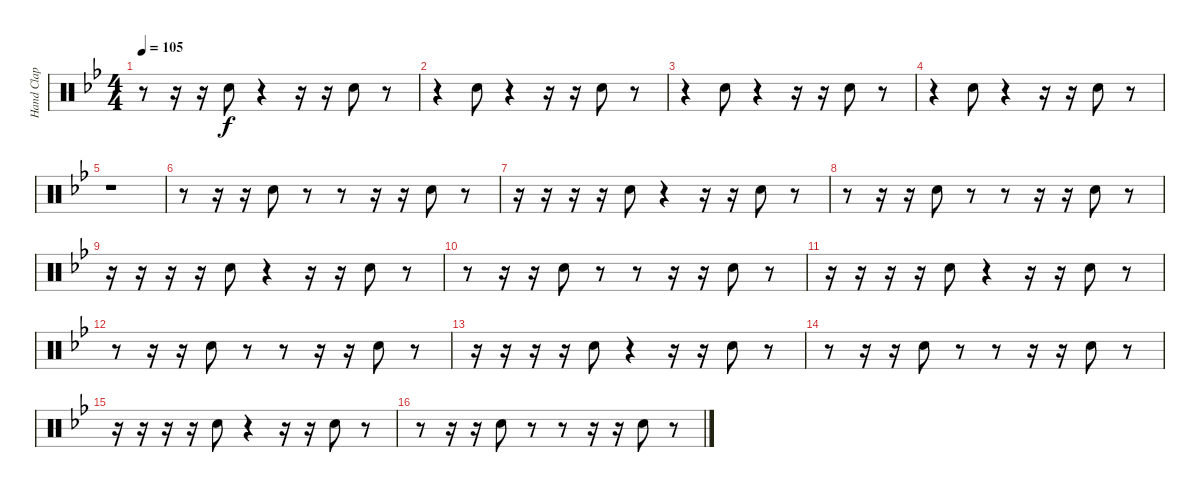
\track ("Hand Clap" "Hand Clap") {instrument percussion}
\staff {score}
\articulation defaults
\ts (4 4)
\tempo 105
\clef neutral
\ks gminor
r.8{dy f} r.16 r.16 "Hand Clap (hit)".8 r.4 r.16 r.16 "Hand Clap (hit)".8 r.8 |
r.4 "Hand Clap (hit)".8 r.4 r.16 r.16 "Hand Clap (hit)".8 r.8 |
r.4 "Hand Clap (hit)".8 r.4 r.16 r.16 "Hand Clap (hit)".8 r.8 |
r.4 "Hand Clap (hit)".8 r.4 r.16 r.16 "Hand Clap (hit)".8 r.8 |
r.1 |
r.8 r.16 r.16 "Hand Clap (hit)".8 r.8 r.8 r.16 r.16 "Hand Clap (hit)".8 r.8 |
r.16 r.16 r.16 r.16 "Hand Clap (hit)".8 r.4 r.16 r.16 "Hand Clap (hit)".8 r.8 |
r.8 r.16 r.16 "Hand Clap (hit)".8 r.8 r.8 r.16 r.16 "Hand Clap (hit)".8 r.8 |
r.16 r.16 r.16 r.16 "Hand Clap (hit)".8 r.4 r.16 r.16 "Hand Clap (hit)".8 r.8 |
r.8 r.16 r.16 "Hand Clap (hit)".8 r.8 r.8 r.16 r.16 "Hand Clap (hit)".8 r.8 |
r.16 r.16 r.16 r.16 "Hand Clap (hit)".8 r.4 r.16 r.16 "Hand Clap (hit)".8 r.8 |
r.8 r.16 r.16 "Hand Clap (hit)".8 r.8 r.8 r.16 r.16 "Hand Clap (hit)".8 r.8 |
r.16 r.16 r.16 r.16 "Hand Clap (hit)".8 r.4 r.16 r.16 "Hand Clap (hit)".8 r.8 |
r.8 r.16 r.16 "Hand Clap (hit)".8 r.8 r.8 r.16 r.16 "Hand Clap (hit)".8 r.8 |
r.16 r.16 r.16 r.16 "Hand Clap (hit)".8 r.4 r.16 r.16 "Hand Clap (hit)".8 r.8 |
r.8 r.16 r.16 "Hand Clap (hit)".8 r.8 r.8 r.16 r.16 "Hand Clap (hit)".8 r.8
